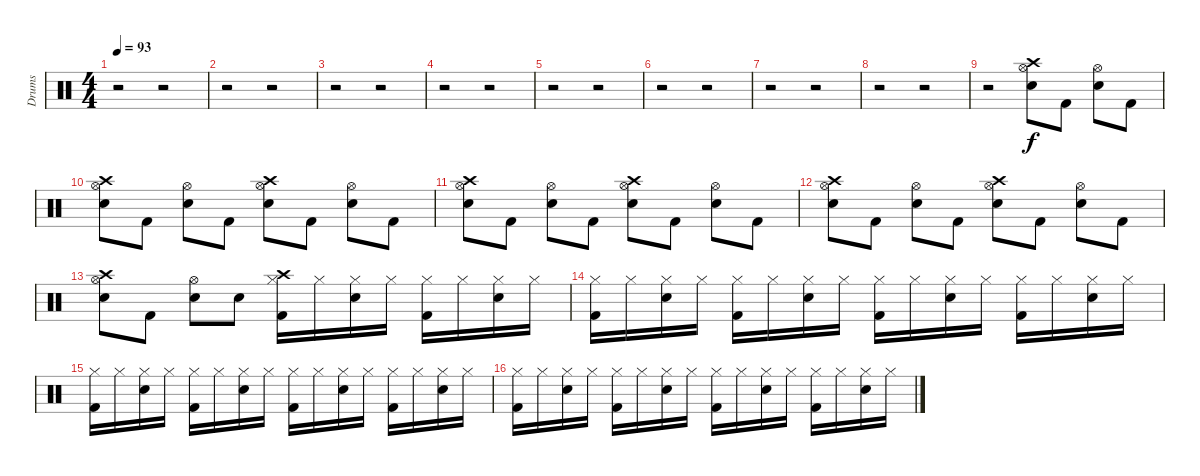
\track ("Drums" "Drums") {instrument percussion}
\staff {score}
\articulation defaults
\ts (4 4)
\tempo 93
\clef neutral
\ks c
r.2{dy f} r.2 |
r.2 r.2 |
r.2 r.2 |
r.2 r.2 |
r.2 r.2 |
r.2 r.2 |
r.2 r.2 |
r.2 r.2 |
r.2 ("Hi-Hat (open)" "Snare (hit) 2" "Crash high (hit)").8 "Kick (hit) 2".8 ("Hi-Hat (open)" "Snare (hit) 2").8 "Kick (hit) 2".8 |
("Hi-Hat (open)" "Snare (hit) 2" "Crash high (hit)").8 "Kick (hit) 2".8 ("Hi-Hat (open)" "Snare (hit) 2").8 "Kick (hit) 2".8 ("Hi-Hat (open)" "Snare (hit) 2" "Crash high (hit)").8 "Kick (hit) 2".8 ("Hi-Hat (open)" "Snare (hit) 2").8 "Kick (hit) 2".8 |
("Hi-Hat (open)" "Snare (hit) 2" "Crash high (hit)").8 "Kick (hit) 2".8 ("Hi-Hat (open)" "Snare (hit) 2").8 "Kick (hit) 2".8 ("Hi-Hat (open)" "Snare (hit) 2" "Crash high (hit)").8 "Kick (hit) 2".8 ("Hi-Hat (open)" "Snare (hit) 2").8 "Kick (hit) 2".8 |
("Hi-Hat (open)" "Snare (hit) 2" "Crash high (hit)").8 "Kick (hit) 2".8 ("Hi-Hat (open)" "Snare (hit) 2").8 "Kick (hit) 2".8 ("Hi-Hat (open)" "Snare (hit) 2" "Crash high (hit)").8 "Kick (hit) 2".8 ("Hi-Hat (open)" "Snare (hit) 2").8 "Kick (hit) 2".8 |
("Hi-Hat (open)" "Snare (hit) 2" "Crash high (hit)").8 "Kick (hit) 2".8 ("Hi-Hat (open)" "Snare (hit) 2").8 "Snare (hit) 2".8 ("Crash high (hit)" "Kick (hit) 2" "Hi-Hat (closed)").16 "Hi-Hat (closed)".16 ("Snare (hit) 2" "Hi-Hat (closed)").16 "Hi-Hat (closed)".16 ("Kick (hit) 2" "Hi-Hat (closed)").16 "Hi-Hat (closed)".16 ("Snare (hit) 2" "Hi-Hat (closed)").16 "Hi-Hat (closed)".16 |
("Kick (hit) 2" "Hi-Hat (closed)").16 "Hi-Hat (closed)".16 ("Snare (hit) 2" "Hi-Hat (closed)").16 "Hi-Hat (closed)".16 ("Kick (hit) 2" "Hi-Hat (closed)").16 "Hi-Hat (closed)".16 ("Snare (hit) 2" "Hi-Hat (closed)").16 "Hi-Hat (closed)".16 ("Kick (hit) 2" "Hi-Hat (closed)").16 "Hi-Hat (closed)".16 ("Snare (hit) 2" "Hi-Hat (closed)").16 "Hi-Hat (closed)".16 ("Kick (hit) 2" "Hi-Hat (closed)").16 "Hi-Hat (closed)".16 ("Snare (hit) 2" "Hi-Hat (closed)").16 "Hi-Hat (closed)".16 |
("Kick (hit) 2" "Hi-Hat (closed)").16 "Hi-Hat (closed)".16 ("Snare (hit) 2" "Hi-Hat (closed)").16 "Hi-Hat (closed)".16 ("Kick (hit) 2" "Hi-Hat (closed)").16 "Hi-Hat (closed)".16 ("Snare (hit) 2" "Hi-Hat (closed)").16 "Hi-Hat (closed)".16 ("Kick (hit) 2" "Hi-Hat (closed)").16 "Hi-Hat (closed)".16 ("Snare (hit) 2" "Hi-Hat (closed)").16 "Hi-Hat (closed)".16 ("Kick (hit) 2" "Hi-Hat (closed)").16 "Hi-Hat (closed)".16 ("Snare (hit) 2" "Hi-Hat (closed)").16 "Hi-Hat (closed)".16 |
("Kick (hit) 2" "Hi-Hat (closed)").16 "Hi-Hat (closed)".16 ("Snare (hit) 2" "Hi-Hat (closed)").16 "Hi-Hat (closed)".16 ("Kick (hit) 2" "Hi-Hat (closed)").16 "Hi-Hat (closed)".16 ("Snare (hit) 2" "Hi-Hat (closed)").16 "Hi-Hat (closed)".16 ("Kick (hit) 2" "Hi-Hat (closed)").16 "Hi-Hat (closed)".16 ("Snare (hit) 2" "Hi-Hat (closed)").16 "Hi-Hat (closed)".16 ("Kick (hit) 2" "Hi-Hat (closed)").16 "Hi-Hat (closed)".16 ("Snare (hit) 2" "Hi-Hat (closed)").16 "Hi-Hat (closed)".16
